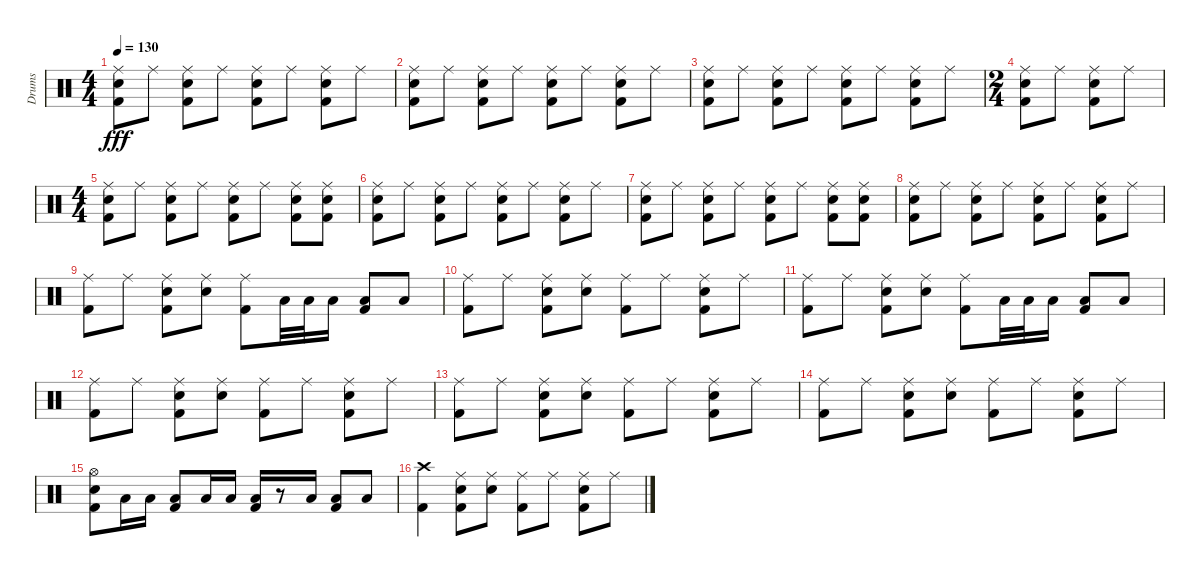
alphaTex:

\track ("Drums" "Drums") {instrument percussion}
\staff {score}
\articulation defaults
\ts (4 4)
\tempo 130
\clef neutral
\ks c
("Kick (hit) 2" "Snare (hit) 2" "Ride (middle)").8{dy fff} "Ride (middle)".8 ("Kick (hit) 2" "Snare (hit) 2" "Ride (middle)").8 "Ride (middle)".8 ("Kick (hit) 2" "Snare (hit) 2" "Ride (middle)").8 "Ride (middle)".8 ("Kick (hit) 2" "Snare (hit) 2" "Ride (middle)").8 "Ride (middle)".8 |
("Kick (hit) 2" "Snare (hit) 2" "Ride (middle)").8 "Ride (middle)".8 ("Kick (hit) 2" "Snare (hit) 2" "Ride (middle)").8 "Ride (middle)".8 ("Kick (hit) 2" "Snare (hit) 2" "Ride (middle)").8 "Ride (middle)".8 ("Kick (hit) 2" "Snare (hit) 2" "Ride (middle)").8 "Ride (middle)".8 |
("Kick (hit) 2" "Snare (hit) 2" "Ride (middle)").8 "Ride (middle)".8 ("Kick (hit) 2" "Snare (hit) 2" "Ride (middle)").8 "Ride (middle)".8 ("Kick (hit) 2" "Snare (hit) 2" "Ride (middle)").8 "Ride (middle)".8 ("Kick (hit) 2" "Snare (hit) 2" "Ride (middle)").8 "Ride (middle)".8 |
\ts (2 4)
("Kick (hit) 2" "Snare (hit) 2" "Ride (middle)").8 "Ride (middle)".8 ("Kick (hit) 2" "Snare (hit) 2" "Ride (middle)").8 "Ride (middle)".8 |
\ts (4 4)
("Kick (hit) 2" "Snare (hit) 2" "Ride (middle)").8 "Ride (middle)".8 ("Kick (hit) 2" "Snare (hit) 2" "Ride (middle)").8 "Ride (middle)".8 ("Kick (hit) 2" "Snare (hit) 2" "Ride (middle)").8 "Ride (middle)".8 ("Kick (hit) 2" "Snare (hit) 2" "Ride (middle)").8 ("Kick (hit) 2" "Snare (hit) 2" "Ride (middle)").8 |
("Kick (hit) 2" "Snare (hit) 2" "Ride (middle)").8 "Ride (middle)".8 ("Kick (hit) 2" "Snare (hit) 2" "Ride (middle)").8 "Ride (middle)".8 ("Kick (hit) 2" "Snare (hit) 2" "Ride (middle)").8 "Ride (middle)".8 ("Kick (hit) 2" "Snare (hit) 2" "Ride (middle)").8 "Ride (middle)".8 |
("Kick (hit) 2" "Snare (hit) 2" "Ride (middle)").8 "Ride (middle)".8 ("Kick (hit) 2" "Snare (hit) 2" "Ride (middle)").8 "Ride (middle)".8 ("Kick (hit) 2" "Snare (hit) 2" "Ride (middle)").8 "Ride (middle)".8 ("Kick (hit) 2" "Snare (hit) 2" "Ride (middle)").8 ("Kick (hit) 2" "Snare (hit) 2" "Ride (middle)").8 |
("Kick (hit) 2" "Snare (hit) 2" "Ride (middle)").8 "Ride (middle)".8 ("Kick (hit) 2" "Snare (hit) 2" "Ride (middle)").8 "Ride (middle)".8 ("Kick (hit) 2" "Snare (hit) 2" "Ride (middle)").8 "Ride (middle)".8 ("Kick (hit) 2" "Snare (hit) 2" "Ride (middle)").8 "Ride (middle)".8 |
("Kick (hit) 2" "Ride (middle)").8 "Ride (middle)".8 ("Kick (hit) 2" "Snare (hit) 2" "Ride (middle)").8 ("Snare (hit) 2" "Ride (middle)").8 ("Kick (hit) 2" "Ride (middle)").8 "Low Floor Tom (hit)".32 "Low Floor Tom (hit)".32 "Low Floor Tom (hit)".16 ("Kick (hit) 2" "Low Floor Tom (hit)").8 "Low Floor Tom (hit)".8 |
("Kick (hit) 2" "Ride (middle)").8 "Ride (middle)".8 ("Kick (hit) 2" "Snare (hit) 2" "Ride (middle)").8 ("Snare (hit) 2" "Ride (middle)").8 ("Kick (hit) 2" "Ride (middle)").8 "Ride (middle)".8 ("Kick (hit) 2" "Snare (hit) 2" "Ride (middle)").8 "Ride (middle)".8 |
("Kick (hit) 2" "Ride (middle)").8 "Ride (middle)".8 ("Kick (hit) 2" "Snare (hit) 2" "Ride (middle)").8 ("Snare (hit) 2" "Ride (middle)").8 ("Kick (hit) 2" "Ride (middle)").8 "Low Floor Tom (hit)".32 "Low Floor Tom (hit)".32 "Low Floor Tom (hit)".16 ("Kick (hit) 2" "Low Floor Tom (hit)").8 "Low Floor Tom (hit)".8 |
("Kick (hit) 2" "Ride (middle)").8 "Ride (middle)".8 ("Kick (hit) 2" "Snare (hit) 2" "Ride (middle)").8 ("Snare (hit) 2" "Ride (middle)").8 ("Kick (hit) 2" "Ride (middle)").8 "Ride (middle)".8 ("Kick (hit) 2" "Snare (hit) 2" "Ride (middle)").8 "Ride (middle)".8 |
("Kick (hit) 2" "Ride (middle)").8 "Ride (middle)".8 ("Kick (hit) 2" "Snare (hit) 2" "Ride (middle)").8 ("Snare (hit) 2" "Ride (middle)").8 ("Kick (hit) 2" "Ride (middle)").8 "Ride (middle)".8 ("Kick (hit) 2" "Snare (hit) 2" "Ride (middle)").8 "Ride (middle)".8 |
("Kick (hit) 2" "Ride (middle)").8 "Ride (middle)".8 ("Kick (hit) 2" "Snare (hit) 2" "Ride (middle)").8 ("Snare (hit) 2" "Ride (middle)").8 ("Kick (hit) 2" "Ride (middle)").8 "Ride (middle)".8 ("Kick (hit) 2" "Snare (hit) 2" "Ride (middle)").8 "Ride (middle)".8 |
("Kick (hit) 2" "Snare (hit) 2" "Hi-Hat (open)").8 "Low Floor Tom (hit)".16 "Low Floor Tom (hit)".16 ("Kick (hit) 2" "Low Floor Tom (hit)").8 "Low Floor Tom (hit)".16 "Low Floor Tom (hit)".16 ("Kick (hit) 2" "Low Floor Tom (hit)").16 r.8 "Low Floor Tom (hit)".16 ("Kick (hit) 2" "Low Floor Tom (hit)").8 "Low Floor Tom (hit)".8 |
("Kick (hit) 2" "Crash high (hit)").4 ("Kick (hit) 2" "Snare (hit) 2" "Ride (middle)").8 ("Snare (hit) 2" "Ride (middle)").8 ("Kick (hit) 2" "Ride (middle)").8 "Ride (middle)".8 ("Kick (hit) 2" "Snare (hit) 2" "Ride (middle)").8 "Ride (middle)".8
